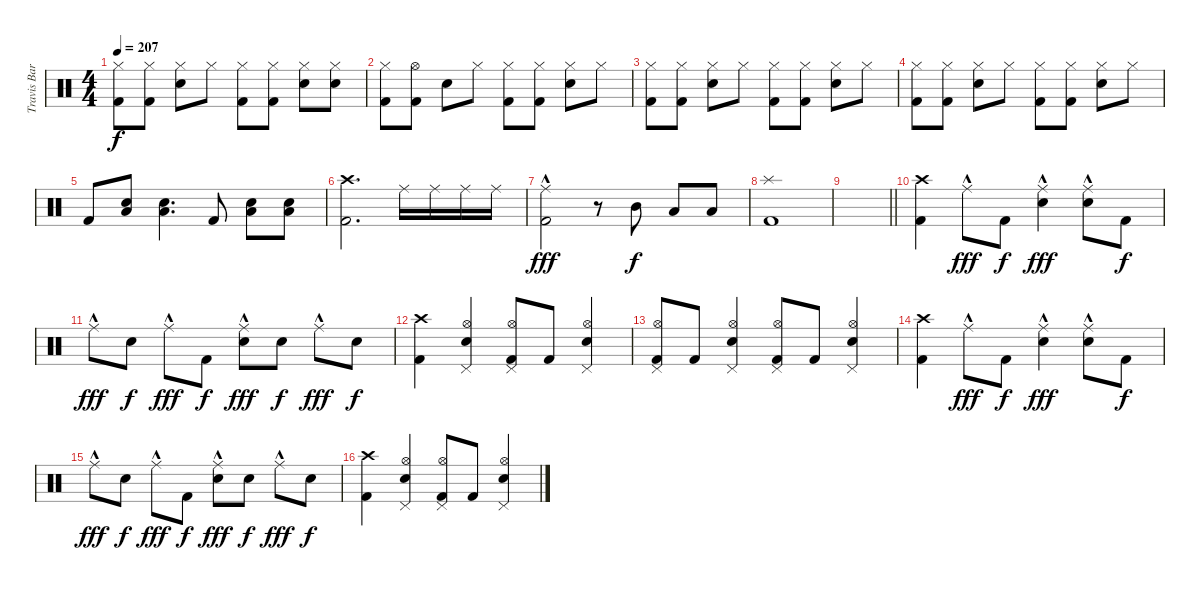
\track ("Travis Barker" "Travis Bar") {instrument percussion}
\staff {score}
\articulation defaults
\ts (4 4)
\tempo 207
\clef neutral
\ks c
("Hi-Hat (closed)" "Kick (hit) 2").8{dy f} ("Hi-Hat (closed)" "Kick (hit) 2").8 ("Hi-Hat (closed)" "Electric Snare (hit)").8 "Hi-Hat (closed)".8 ("Hi-Hat (closed)" "Kick (hit) 2").8 ("Hi-Hat (closed)" "Kick (hit) 2").8 ("Hi-Hat (closed)" "Electric Snare (hit)").8 ("Hi-Hat (closed)" "Electric Snare (hit)").8 |
("Hi-Hat (closed)" "Kick (hit) 2").8 ("Hi-Hat (open)" "Kick (hit) 2").8 "Electric Snare (hit)".8 "Hi-Hat (closed)".8 ("Hi-Hat (closed)" "Kick (hit) 2").8 ("Hi-Hat (closed)" "Kick (hit) 2").8 ("Hi-Hat (closed)" "Electric Snare (hit)").8 "Hi-Hat (closed)".8 |
("Hi-Hat (closed)" "Kick (hit) 2").8 ("Hi-Hat (closed)" "Kick (hit) 2").8 ("Hi-Hat (closed)" "Electric Snare (hit)").8 "Hi-Hat (closed)".8 ("Hi-Hat (closed)" "Kick (hit) 2").8 ("Hi-Hat (closed)" "Kick (hit) 2").8 ("Hi-Hat (closed)" "Electric Snare (hit)").8 "Hi-Hat (closed)".8 |
("Hi-Hat (closed)" "Kick (hit) 2").8 ("Hi-Hat (closed)" "Kick (hit) 2").8 ("Hi-Hat (closed)" "Electric Snare (hit)").8 "Hi-Hat (closed)".8 ("Hi-Hat (closed)" "Kick (hit) 2").8 ("Hi-Hat (closed)" "Kick (hit) 2").8 ("Hi-Hat (closed)" "Electric Snare (hit)").8 "Hi-Hat (closed)".8 |
"Kick (hit) 2".8 ("Electric Snare (hit)" "Low Tom (hit)").8 ("Electric Snare (hit)" "Low Tom (hit)").4{d} "Kick (hit) 2".8 ("Electric Snare (hit)" "Low Tom (hit)").8 ("Electric Snare (hit)" "Low Tom (hit)").8 |
("Crash high (hit)" "Kick (hit) 2").2{d volume 12} "Ride (middle)".16 "Ride (middle)".16 "Ride (middle)".16 "Ride (middle)".16 |
("Ride (middle)"{hac} "Kick (hit) 2").2{dy fff} r.8 "Mid Tom (hit)".8{dy f} "Low Tom (hit)".8 "Low Tom (hit)".8 |
("Splash (hit)" "Kick (hit) 2").1 |
\barLineRight lightlight
|
("Crash high (hit)" "Kick (hit) 2").4{volume 14} "Ride (middle)"{hac}.8{dy fff} "Kick (hit) 2".8{dy f} ("Ride (middle)"{hac} "Electric Snare (hit)").4{dy fff} ("Ride (middle)"{hac} "Electric Snare (hit)").8 "Kick (hit) 2".8{dy f} |
"Ride (middle)"{hac}.8{dy fff} "Electric Snare (hit)".8{dy f} "Ride (middle)"{hac}.8{dy fff} "Kick (hit) 2".8{dy f} ("Ride (middle)"{hac} "Electric Snare (hit)").8{dy fff} "Electric Snare (hit)".8{dy f} "Ride (middle)"{hac}.8{dy fff} "Electric Snare (hit)".8{dy f} |
("Crash high (hit)" "Kick (hit) 2").4 ("Hi-Hat (open)" "Pedal Hi-Hat (hit)" "Electric Snare (hit)").4 ("Hi-Hat (open)" "Pedal Hi-Hat (hit)" "Kick (hit) 2").8 "Kick (hit) 2".8 ("Hi-Hat (open)" "Pedal Hi-Hat (hit)" "Electric Snare (hit)").4 |
("Hi-Hat (open)" "Pedal Hi-Hat (hit)" "Kick (hit) 2").8 "Kick (hit) 2".8 ("Hi-Hat (open)" "Pedal Hi-Hat (hit)" "Electric Snare (hit)").4 ("Hi-Hat (open)" "Pedal Hi-Hat (hit)" "Kick (hit) 2").8 "Kick (hit) 2".8 ("Hi-Hat (open)" "Pedal Hi-Hat (hit)" "Electric Snare (hit)").4 |
("Crash high (hit)" "Kick (hit) 2").4 "Ride (middle)"{hac}.8{dy fff} "Kick (hit) 2".8{dy f} ("Ride (middle)"{hac} "Electric Snare (hit)").4{dy fff} ("Ride (middle)"{hac} "Electric Snare (hit)").8 "Kick (hit) 2".8{dy f} |
"Ride (middle)"{hac}.8{dy fff} "Electric Snare (hit)".8{dy f} "Ride (middle)"{hac}.8{dy fff} "Kick (hit) 2".8{dy f} ("Ride (middle)"{hac} "Electric Snare (hit)").8{dy fff} "Electric Snare (hit)".8{dy f} "Ride (middle)"{hac}.8{dy fff} "Electric Snare (hit)".8{dy f} |
("Crash high (hit)" "Kick (hit) 2").4 ("Hi-Hat (open)" "Pedal Hi-Hat (hit)" "Electric Snare (hit)").4 ("Hi-Hat (open)" "Pedal Hi-Hat (hit)" "Kick (hit) 2").8 "Kick (hit) 2".8 ("Hi-Hat (open)" "Pedal Hi-Hat (hit)" "Electric Snare (hit)").4
